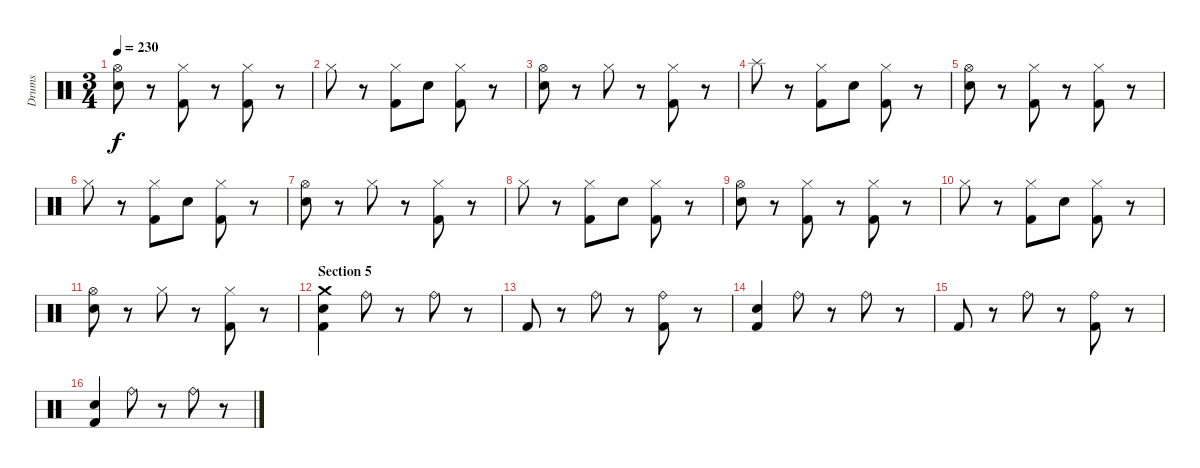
\track ("Drums" "Drums") {instrument percussion}
\staff {score}
\articulation defaults
\ts (3 4)
\tempo 230
\clef neutral
\ks c
("Hi-Hat (open)" "Electric Snare (hit)").8{dy f} r.8 ("Hi-Hat (closed)" "Kick (hit) 2").8 r.8 ("Hi-Hat (closed)" "Kick (hit) 2").8 r.8 |
"Hi-Hat (closed)".8 r.8 ("Hi-Hat (closed)" "Kick (hit) 2").8 "Electric Snare (hit)".8 ("Hi-Hat (closed)" "Kick (hit) 2").8 r.8 |
("Hi-Hat (open)" "Electric Snare (hit)").8 r.8 "Hi-Hat (closed)".8 r.8 ("Hi-Hat (closed)" "Kick (hit) 2").8 r.8 |
"Splash (hit)".8 r.8 ("Hi-Hat (closed)" "Kick (hit) 2").8 "Electric Snare (hit)".8 ("Hi-Hat (closed)" "Kick (hit) 2").8 r.8 |
("Hi-Hat (open)" "Electric Snare (hit)").8 r.8 ("Hi-Hat (closed)" "Kick (hit) 2").8 r.8 ("Hi-Hat (closed)" "Kick (hit) 2").8 r.8 |
"Hi-Hat (closed)".8 r.8 ("Hi-Hat (closed)" "Kick (hit) 2").8 "Electric Snare (hit)".8 ("Hi-Hat (closed)" "Kick (hit) 2").8 r.8 |
("Hi-Hat (open)" "Electric Snare (hit)").8 r.8 "Hi-Hat (closed)".8 r.8 ("Hi-Hat (closed)" "Kick (hit) 2").8 r.8 |
"Hi-Hat (closed)".8 r.8 ("Hi-Hat (closed)" "Kick (hit) 2").8 "Electric Snare (hit)".8 ("Hi-Hat (closed)" "Kick (hit) 2").8 r.8 |
("Hi-Hat (open)" "Electric Snare (hit)").8 r.8 ("Hi-Hat (closed)" "Kick (hit) 2").8 r.8 ("Hi-Hat (closed)" "Kick (hit) 2").8 r.8 |
"Hi-Hat (closed)".8 r.8 ("Hi-Hat (closed)" "Kick (hit) 2").8 "Electric Snare (hit)".8 ("Hi-Hat (closed)" "Kick (hit) 2").8 r.8 |
("Hi-Hat (open)" "Electric Snare (hit)").8 r.8 "Hi-Hat (closed)".8 r.8 ("Hi-Hat (closed)" "Kick (hit) 2").8 r.8 |
\section ("" "Section 5")
("Crash medium (hit)" "Electric Snare (hit)" "Kick (hit) 2").4 "Ride (bell)".8 r.8 "Ride (bell)".8 r.8 |
"Kick (hit) 2".8 r.8 "Ride (bell)".8 r.8 ("Ride (bell)" "Kick (hit) 2").8 r.8 |
("Electric Snare (hit)" "Kick (hit) 2").4 "Ride (bell)".8 r.8 "Ride (bell)".8 r.8 |
"Kick (hit) 2".8 r.8 "Ride (bell)".8 r.8 ("Ride (bell)" "Kick (hit) 2").8 r.8 |
("Electric Snare (hit)" "Kick (hit) 2").4 "Ride (bell)".8 r.8 "Ride (bell)".8 r.8
